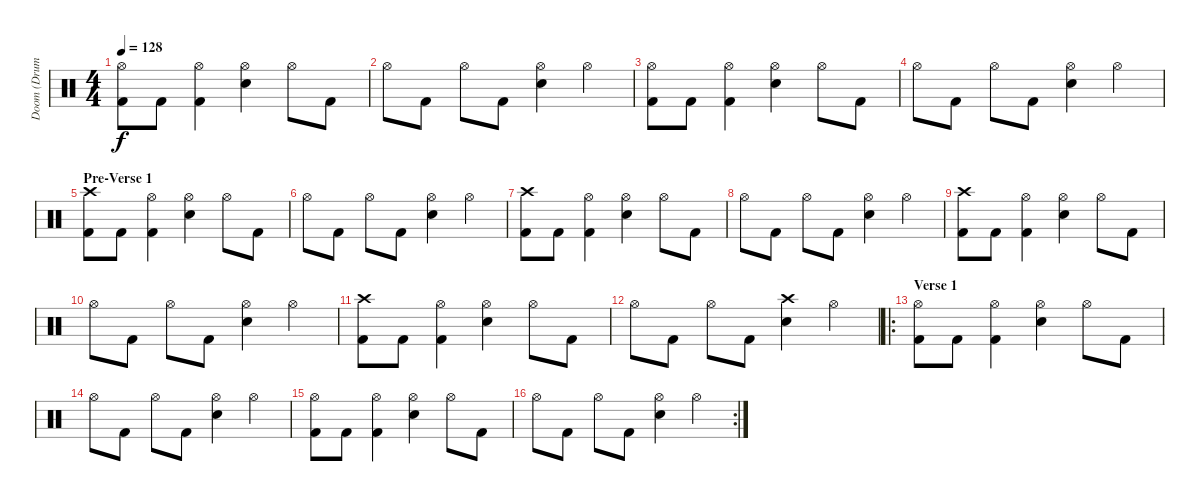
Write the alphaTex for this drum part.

\track ("Doom (Drums)" "Doom (Drum") {instrument percussion}
\staff {score}
\articulation defaults
\ts (4 4)
\tempo 128
\clef neutral
\ks c
("Hi-Hat (open)" "Kick (hit) 2").8{dy f} "Kick (hit) 2".8 ("Hi-Hat (open)" "Kick (hit) 2").4 ("Hi-Hat (open)" "Electric Snare (hit)").4 "Hi-Hat (open)".8 "Kick (hit) 2".8 |
"Hi-Hat (open)".8 "Kick (hit) 2".8 "Hi-Hat (open)".8 "Kick (hit) 2".8 ("Hi-Hat (open)" "Electric Snare (hit)").4 "Hi-Hat (open)".4 |
("Hi-Hat (open)" "Kick (hit) 2").8 "Kick (hit) 2".8 ("Hi-Hat (open)" "Kick (hit) 2").4 ("Hi-Hat (open)" "Electric Snare (hit)").4 "Hi-Hat (open)".8 "Kick (hit) 2".8 |
"Hi-Hat (open)".8 "Kick (hit) 2".8 "Hi-Hat (open)".8 "Kick (hit) 2".8 ("Hi-Hat (open)" "Electric Snare (hit)").4 "Hi-Hat (open)".4 |
\section ("" "Pre-Verse 1")
("Crash high (hit)" "Kick (hit) 2").8 "Kick (hit) 2".8 ("Hi-Hat (open)" "Kick (hit) 2").4 ("Hi-Hat (open)" "Electric Snare (hit)").4 "Hi-Hat (open)".8 "Kick (hit) 2".8 |
"Hi-Hat (open)".8 "Kick (hit) 2".8 "Hi-Hat (open)".8 "Kick (hit) 2".8 ("Hi-Hat (open)" "Electric Snare (hit)").4 "Hi-Hat (open)".4 |
("Crash high (hit)" "Kick (hit) 2").8 "Kick (hit) 2".8 ("Hi-Hat (open)" "Kick (hit) 2").4 ("Hi-Hat (open)" "Electric Snare (hit)").4 "Hi-Hat (open)".8 "Kick (hit) 2".8 |
"Hi-Hat (open)".8 "Kick (hit) 2".8 "Hi-Hat (open)".8 "Kick (hit) 2".8 ("Hi-Hat (open)" "Electric Snare (hit)").4 "Hi-Hat (open)".4 |
("Crash high (hit)" "Kick (hit) 2").8 "Kick (hit) 2".8 ("Hi-Hat (open)" "Kick (hit) 2").4 ("Hi-Hat (open)" "Electric Snare (hit)").4 "Hi-Hat (open)".8 "Kick (hit) 2".8 |
"Hi-Hat (open)".8 "Kick (hit) 2".8 "Hi-Hat (open)".8 "Kick (hit) 2".8 ("Hi-Hat (open)" "Electric Snare (hit)").4 "Hi-Hat (open)".4 |
("Crash high (hit)" "Kick (hit) 2").8 "Kick (hit) 2".8 ("Hi-Hat (open)" "Kick (hit) 2").4 ("Hi-Hat (open)" "Electric Snare (hit)").4 "Hi-Hat (open)".8 "Kick (hit) 2".8 |
"Hi-Hat (open)".8 "Kick (hit) 2".8 "Hi-Hat (open)".8 "Kick (hit) 2".8 ("Crash high (hit)" "Electric Snare (hit)").4 "Hi-Hat (open)".4 |
\ro
\section ("" "Verse 1")
("Hi-Hat (open)" "Kick (hit) 2").8 "Kick (hit) 2".8 ("Hi-Hat (open)" "Kick (hit) 2").4 ("Hi-Hat (open)" "Electric Snare (hit)").4 "Hi-Hat (open)".8 "Kick (hit) 2".8 |
"Hi-Hat (open)".8 "Kick (hit) 2".8 "Hi-Hat (open)".8 "Kick (hit) 2".8 ("Hi-Hat (open)" "Electric Snare (hit)").4 "Hi-Hat (open)".4 |
("Hi-Hat (open)" "Kick (hit) 2").8 "Kick (hit) 2".8 ("Hi-Hat (open)" "Kick (hit) 2").4 ("Hi-Hat (open)" "Electric Snare (hit)").4 "Hi-Hat (open)".8 "Kick (hit) 2".8 |
\rc 2 "Hi-Hat (open)".8 "Kick (hit) 2".8 "Hi-Hat (open)".8 "Kick (hit) 2".8
("Hi-Hat (open)" "Electric Snare (hit)").4 "Hi-Hat (open)".4
